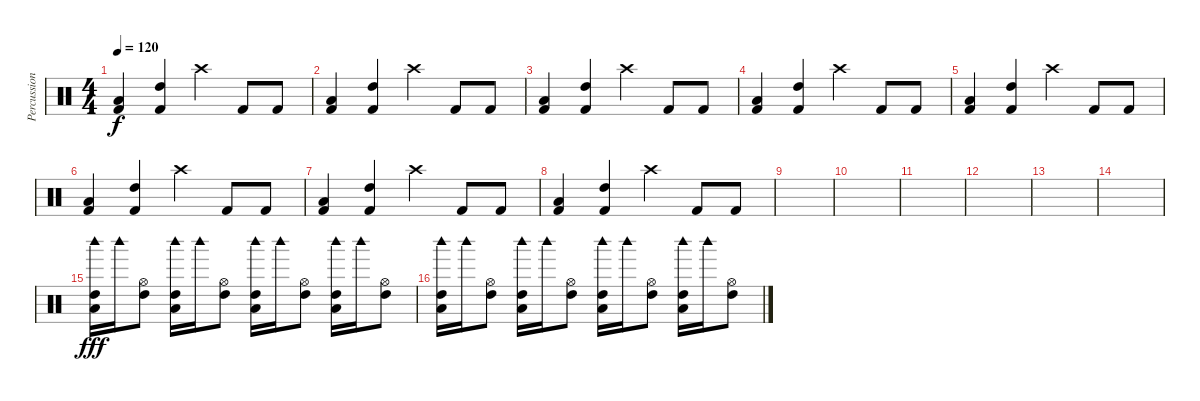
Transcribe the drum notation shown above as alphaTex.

\track ("Percussion" "Percussion") {instrument percussion}
\staff {score}
\articulation defaults
\ts (4 4)
\tempo 120
\clef neutral
\ks c
("Low Floor Tom (hit)" "Kick (hit) 2").4{dy f} ("High Tom (hit)" "Kick (hit) 2").4 "Crash high (hit)".4 "Kick (hit) 2".8 "Kick (hit) 2".8 |
("Low Floor Tom (hit)" "Kick (hit) 2").4 ("High Tom (hit)" "Kick (hit) 2").4 "Crash high (hit)".4 "Kick (hit) 2".8 "Kick (hit) 2".8 |
("Low Floor Tom (hit)" "Kick (hit) 2").4 ("High Tom (hit)" "Kick (hit) 2").4 "Crash high (hit)".4 "Kick (hit) 2".8 "Kick (hit) 2".8 |
("Low Floor Tom (hit)" "Kick (hit) 2").4 ("High Tom (hit)" "Kick (hit) 2").4 "Crash high (hit)".4 "Kick (hit) 2".8 "Kick (hit) 2".8 |
("Low Floor Tom (hit)" "Kick (hit) 2").4 ("High Tom (hit)" "Kick (hit) 2").4 "Crash high (hit)".4 "Kick (hit) 2".8 "Kick (hit) 2".8 |
("Low Floor Tom (hit)" "Kick (hit) 2").4 ("High Tom (hit)" "Kick (hit) 2").4 "Crash high (hit)".4 "Kick (hit) 2".8 "Kick (hit) 2".8 |
("Low Floor Tom (hit)" "Kick (hit) 2").4 ("High Tom (hit)" "Kick (hit) 2").4 "Crash high (hit)".4 "Kick (hit) 2".8 "Kick (hit) 2".8 |
("Low Floor Tom (hit)" "Kick (hit) 2").4 ("High Tom (hit)" "Kick (hit) 2").4 "Crash high (hit)".4 "Kick (hit) 2".8 "Kick (hit) 2".8 |
|
|
|
|
|
|
("Woodblock high (hit)" "High Tom (hit)" "Low Floor Tom (hit)").16{dy fff} "Woodblock high (hit)".16 ("Hi-Hat (open)" "High Tom (hit)").8 ("Woodblock high (hit)" "High Tom (hit)" "Low Floor Tom (hit)").16 "Woodblock high (hit)".16 ("Hi-Hat (open)" "High Tom (hit)").8 ("Woodblock high (hit)" "High Tom (hit)" "Low Floor Tom (hit)").16 "Woodblock high (hit)".16 ("Hi-Hat (open)" "High Tom (hit)").8 ("Woodblock high (hit)" "High Tom (hit)" "Low Floor Tom (hit)").16 "Woodblock high (hit)".16 ("Hi-Hat (open)" "High Tom (hit)").8 |
("Woodblock high (hit)" "High Tom (hit)" "Low Floor Tom (hit)").16 "Woodblock high (hit)".16 ("Hi-Hat (open)" "High Tom (hit)").8 ("Woodblock high (hit)" "High Tom (hit)" "Low Floor Tom (hit)").16 "Woodblock high (hit)".16 ("Hi-Hat (open)" "High Tom (hit)").8 ("Woodblock high (hit)" "High Tom (hit)" "Low Floor Tom (hit)").16 "Woodblock high (hit)".16 ("Hi-Hat (open)" "High Tom (hit)").8 ("Woodblock high (hit)" "High Tom (hit)" "Low Floor Tom (hit)").16 "Woodblock high (hit)".16 ("Hi-Hat (open)" "High Tom (hit)").8
